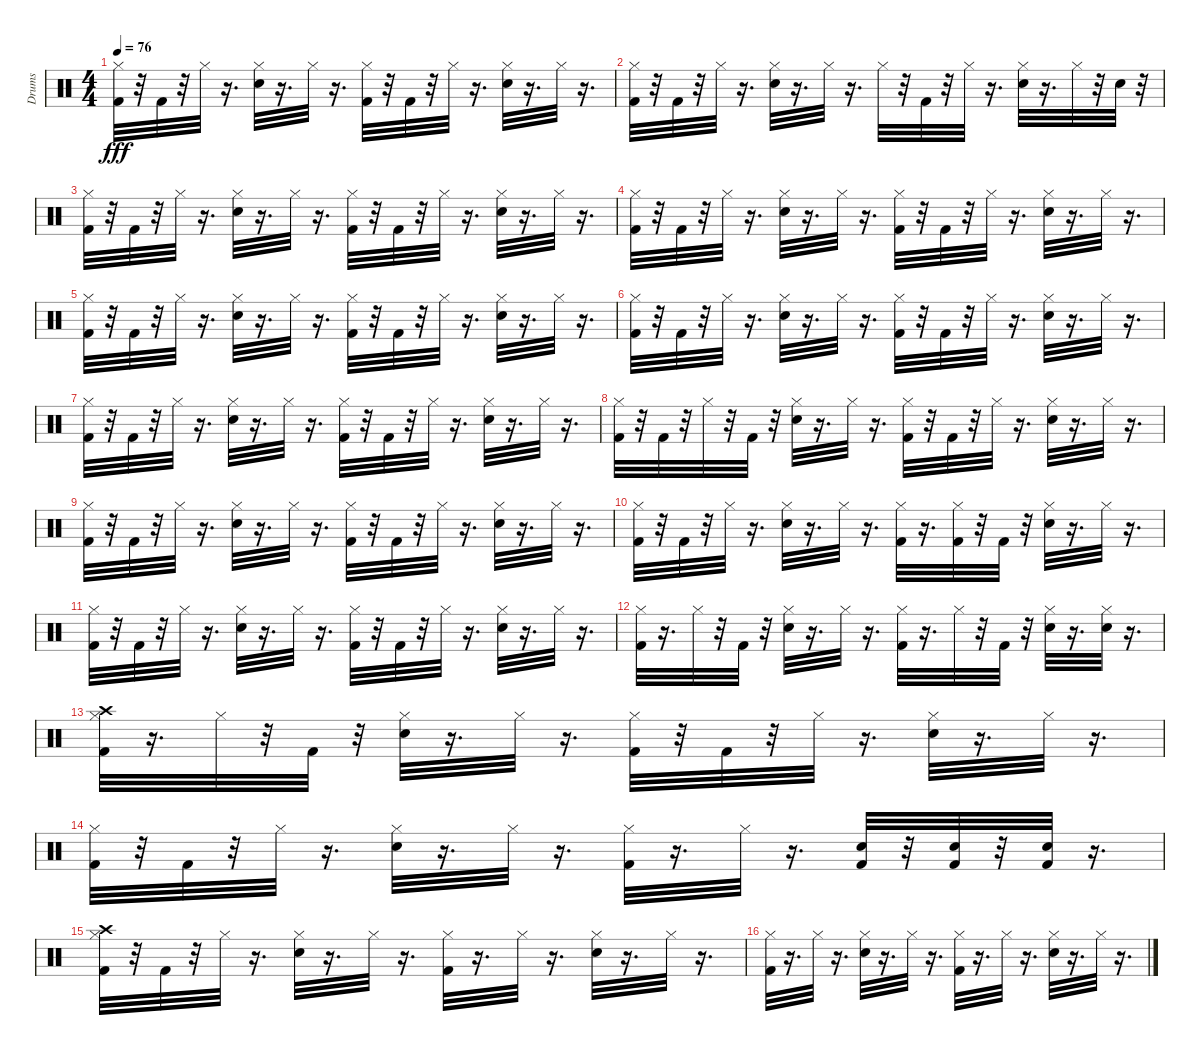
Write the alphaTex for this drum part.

\track ("Drums" "Drums") {instrument percussion}
\staff {score}
\articulation defaults
\ts (4 4)
\tempo 76
\clef neutral
\ks c
("Hi-Hat (closed)" "Kick (hit) 2").32{dy fff} r.32 "Kick (hit) 2".32 r.32 "Hi-Hat (closed)".32 r.16{d} ("Hi-Hat (closed)" "Electric Snare (hit)").32 r.16{d} "Hi-Hat (closed)".32 r.16{d} ("Hi-Hat (closed)" "Kick (hit) 2").32 r.32 "Kick (hit) 2".32 r.32 "Hi-Hat (closed)".32 r.16{d} ("Hi-Hat (closed)" "Electric Snare (hit)").32 r.16{d} "Hi-Hat (closed)".32 r.16{d} |
("Kick (hit) 2" "Hi-Hat (closed)").32 r.32 "Kick (hit) 2".32 r.32 "Hi-Hat (closed)".32 r.16{d} ("Electric Snare (hit)" "Hi-Hat (closed)").32 r.16{d} "Hi-Hat (closed)".32 r.16{d} "Hi-Hat (closed)".32 r.32 "Kick (hit) 2".32 r.32 "Hi-Hat (closed)".32 r.16{d} ("Electric Snare (hit)" "Hi-Hat (closed)").32 r.16{d} "Hi-Hat (closed)".32 r.32 "Electric Snare (hit)".32 r.32 |
("Hi-Hat (closed)" "Kick (hit) 2").32 r.32 "Kick (hit) 2".32 r.32 "Hi-Hat (closed)".32 r.16{d} ("Hi-Hat (closed)" "Electric Snare (hit)").32 r.16{d} "Hi-Hat (closed)".32 r.16{d} ("Hi-Hat (closed)" "Kick (hit) 2").32 r.32 "Kick (hit) 2".32 r.32 "Hi-Hat (closed)".32 r.16{d} ("Hi-Hat (closed)" "Electric Snare (hit)").32 r.16{d} "Hi-Hat (closed)".32 r.16{d} |
("Kick (hit) 2" "Hi-Hat (closed)").32 r.32 "Kick (hit) 2".32 r.32 "Hi-Hat (closed)".32 r.16{d} ("Electric Snare (hit)" "Hi-Hat (closed)").32 r.16{d} "Hi-Hat (closed)".32 r.16{d} ("Kick (hit) 2" "Hi-Hat (closed)").32 r.32 "Kick (hit) 2".32 r.32 "Hi-Hat (closed)".32 r.16{d} ("Electric Snare (hit)" "Hi-Hat (closed)").32 r.16{d} "Hi-Hat (closed)".32 r.16{d} |
("Hi-Hat (closed)" "Kick (hit) 2").32 r.32 "Kick (hit) 2".32 r.32 "Hi-Hat (closed)".32 r.16{d} ("Hi-Hat (closed)" "Electric Snare (hit)").32 r.16{d} "Hi-Hat (closed)".32 r.16{d} ("Hi-Hat (closed)" "Kick (hit) 2").32 r.32 "Kick (hit) 2".32 r.32 "Hi-Hat (closed)".32 r.16{d} ("Hi-Hat (closed)" "Electric Snare (hit)").32 r.16{d} "Hi-Hat (closed)".32 r.16{d} |
("Kick (hit) 2" "Hi-Hat (closed)").32 r.32 "Kick (hit) 2".32 r.32 "Hi-Hat (closed)".32 r.16{d} ("Electric Snare (hit)" "Hi-Hat (closed)").32 r.16{d} "Hi-Hat (closed)".32 r.16{d} ("Kick (hit) 2" "Hi-Hat (closed)").32 r.32 "Kick (hit) 2".32 r.32 "Hi-Hat (closed)".32 r.16{d} ("Electric Snare (hit)" "Hi-Hat (closed)").32 r.16{d} "Hi-Hat (closed)".32 r.16{d} |
("Hi-Hat (closed)" "Kick (hit) 2").32 r.32 "Kick (hit) 2".32 r.32 "Hi-Hat (closed)".32 r.16{d} ("Hi-Hat (closed)" "Electric Snare (hit)").32 r.16{d} "Hi-Hat (closed)".32 r.16{d} ("Hi-Hat (closed)" "Kick (hit) 2").32 r.32 "Kick (hit) 2".32 r.32 "Hi-Hat (closed)".32 r.16{d} ("Hi-Hat (closed)" "Electric Snare (hit)").32 r.16{d} "Hi-Hat (closed)".32 r.16{d} |
("Kick (hit) 2" "Hi-Hat (closed)").32 r.32 "Kick (hit) 2".32 r.32 "Hi-Hat (closed)".32 r.32 "Kick (hit) 2".32 r.32 ("Electric Snare (hit)" "Hi-Hat (closed)").32 r.16{d} "Hi-Hat (closed)".32 r.16{d} ("Kick (hit) 2" "Hi-Hat (closed)").32 r.32 "Kick (hit) 2".32 r.32 "Hi-Hat (closed)".32 r.16{d} ("Electric Snare (hit)" "Hi-Hat (closed)").32 r.16{d} "Hi-Hat (closed)".32 r.16{d} |
("Hi-Hat (closed)" "Kick (hit) 2").32 r.32 "Kick (hit) 2".32 r.32 "Hi-Hat (closed)".32 r.16{d} ("Hi-Hat (closed)" "Electric Snare (hit)").32 r.16{d} "Hi-Hat (closed)".32 r.16{d} ("Hi-Hat (closed)" "Kick (hit) 2").32 r.32 "Kick (hit) 2".32 r.32 "Hi-Hat (closed)".32 r.16{d} ("Hi-Hat (closed)" "Electric Snare (hit)").32 r.16{d} "Hi-Hat (closed)".32 r.16{d} |
("Kick (hit) 2" "Hi-Hat (closed)").32 r.32 "Kick (hit) 2".32 r.32 "Hi-Hat (closed)".32 r.16{d} ("Electric Snare (hit)" "Hi-Hat (closed)").32 r.16{d} "Hi-Hat (closed)".32 r.16{d} ("Kick (hit) 2" "Hi-Hat (closed)").32 r.16{d} ("Kick (hit) 2" "Hi-Hat (closed)").32 r.32 "Kick (hit) 2".32 r.32 ("Electric Snare (hit)" "Hi-Hat (closed)").32 r.16{d} "Hi-Hat (closed)".32 r.16{d} |
("Hi-Hat (closed)" "Kick (hit) 2").32 r.32 "Kick (hit) 2".32 r.32 "Hi-Hat (closed)".32 r.16{d} ("Hi-Hat (closed)" "Electric Snare (hit)").32 r.16{d} "Hi-Hat (closed)".32 r.16{d} ("Hi-Hat (closed)" "Kick (hit) 2").32 r.32 "Kick (hit) 2".32 r.32 "Hi-Hat (closed)".32 r.16{d} ("Hi-Hat (closed)" "Electric Snare (hit)").32 r.16{d} "Hi-Hat (closed)".32 r.16{d} |
("Kick (hit) 2" "Hi-Hat (closed)").32 r.16{d} "Hi-Hat (closed)".32 r.32 "Kick (hit) 2".32 r.32 ("Electric Snare (hit)" "Hi-Hat (closed)").32 r.16{d} "Hi-Hat (closed)".32 r.16{d} ("Kick (hit) 2" "Hi-Hat (closed)").32 r.16{d} "Hi-Hat (closed)".32 r.32 "Kick (hit) 2".32 r.32 ("Electric Snare (hit)" "Hi-Hat (closed)").32 r.16{d} ("Electric Snare (hit)" "Hi-Hat (closed)").32 r.16{d} |
("Crash high (hit)" "Hi-Hat (closed)" "Kick (hit) 2").32 r.16{d} "Hi-Hat (closed)".32 r.32 "Kick (hit) 2".32 r.32 ("Hi-Hat (closed)" "Electric Snare (hit)").32 r.16{d} "Hi-Hat (closed)".32 r.16{d} ("Hi-Hat (closed)" "Kick (hit) 2").32 r.32 "Kick (hit) 2".32 r.32 "Hi-Hat (closed)".32 r.16{d} ("Hi-Hat (closed)" "Electric Snare (hit)").32 r.16{d} "Hi-Hat (closed)".32 r.16{d} |
("Kick (hit) 2" "Hi-Hat (closed)").32 r.32 "Kick (hit) 2".32 r.32 "Hi-Hat (closed)".32 r.16{d} ("Electric Snare (hit)" "Hi-Hat (closed)").32 r.16{d} "Hi-Hat (closed)".32 r.16{d} ("Kick (hit) 2" "Hi-Hat (closed)").32 r.16{d} "Hi-Hat (closed)".32 r.16{d} ("Kick (hit) 2" "Electric Snare (hit)").32 r.32 ("Kick (hit) 2" "Electric Snare (hit)").32 r.32 ("Kick (hit) 2" "Electric Snare (hit)").32 r.16{d} |
("Crash high (hit)" "Hi-Hat (closed)" "Kick (hit) 2").32 r.32 "Kick (hit) 2".32 r.32 "Hi-Hat (closed)".32 r.16{d} ("Hi-Hat (closed)" "Electric Snare (hit)").32 r.16{d} "Hi-Hat (closed)".32 r.16{d} ("Kick (hit) 2" "Hi-Hat (closed)").32 r.16{d} "Hi-Hat (closed)".32 r.16{d} ("Hi-Hat (closed)" "Electric Snare (hit)").32 r.16{d} "Hi-Hat (closed)".32 r.16{d} |
("Kick (hit) 2" "Hi-Hat (closed)").32 r.16{d} "Hi-Hat (closed)".32 r.16{d} ("Electric Snare (hit)" "Hi-Hat (closed)").32 r.16{d} "Hi-Hat (closed)".32 r.16{d} ("Kick (hit) 2" "Hi-Hat (closed)").32 r.16{d} "Hi-Hat (closed)".32 r.16{d} ("Hi-Hat (closed)" "Electric Snare (hit)").32 r.16{d} "Hi-Hat (closed)".32 r.16{d}
